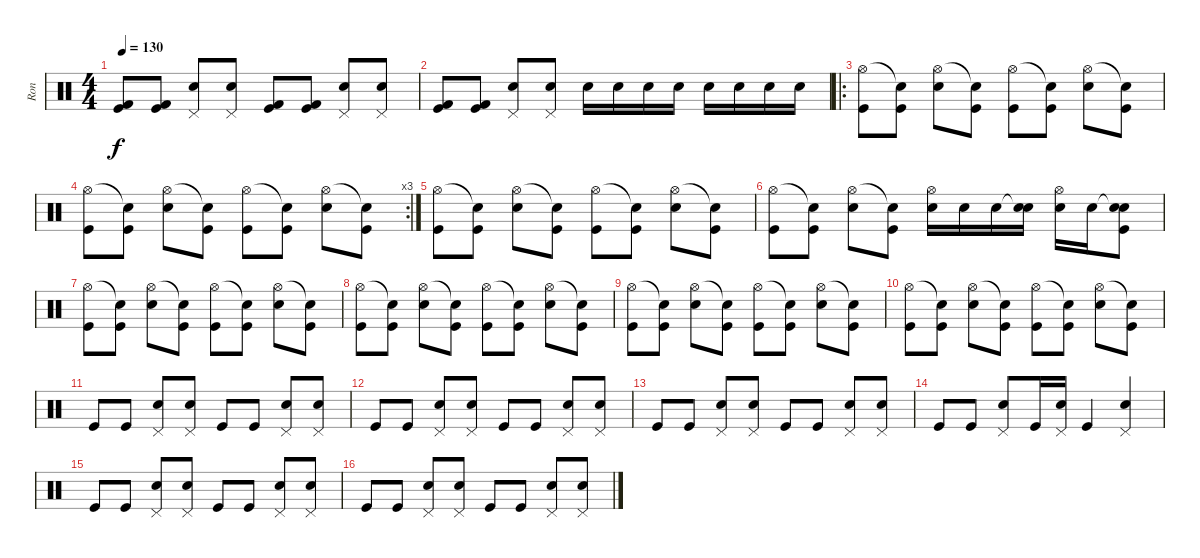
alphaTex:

\track ("Ron" "Ron") {instrument percussion}
\staff {score}
\articulation defaults
\ts (4 4)
\tempo 130
\clef neutral
\ks c
("Kick (hit) 2" "Kick (hit)").8{dy f} ("Kick (hit) 2" "Kick (hit)").8 ("Pedal Hi-Hat (hit)" "Electric Snare (hit)").8 ("Pedal Hi-Hat (hit)" "Electric Snare (hit)").8 ("Kick (hit) 2" "Kick (hit)").8 ("Kick (hit) 2" "Kick (hit)").8 ("Pedal Hi-Hat (hit)" "Electric Snare (hit)").8 ("Pedal Hi-Hat (hit)" "Electric Snare (hit)").8 |
("Kick (hit) 2" "Kick (hit)").8 ("Kick (hit) 2" "Kick (hit)").8 ("Pedal Hi-Hat (hit)" "Electric Snare (hit)").8 ("Pedal Hi-Hat (hit)" "Electric Snare (hit)").8 "Electric Snare (hit)".16 "Electric Snare (hit)".16 "Electric Snare (hit)".16 "Electric Snare (hit)".16 "Electric Snare (hit)".16 "Electric Snare (hit)".16 "Electric Snare (hit)".16 "Electric Snare (hit)".16 |
\ro
("Hi-Hat (open)" "Kick (hit)").8 ("Snare (hit)"{t} "Kick (hit)").8 ("Hi-Hat (open)" "Electric Snare (hit)").8 ("Snare (hit)"{t} "Kick (hit)").8 ("Hi-Hat (open)" "Kick (hit)").8 ("Snare (hit)"{t} "Kick (hit)").8 ("Hi-Hat (open)" "Electric Snare (hit)").8 ("Snare (hit)"{t} "Kick (hit)").8 |
\rc 3
("Hi-Hat (open)" "Kick (hit)").8 ("Snare (hit)"{t} "Kick (hit)").8 ("Hi-Hat (open)" "Electric Snare (hit)").8 ("Snare (hit)"{t} "Kick (hit)").8 ("Hi-Hat (open)" "Kick (hit)").8 ("Snare (hit)"{t} "Kick (hit)").8 ("Hi-Hat (open)" "Electric Snare (hit)").8 ("Snare (hit)"{t} "Kick (hit)").8 |
("Hi-Hat (open)" "Kick (hit)").8 ("Snare (hit)"{t} "Kick (hit)").8 ("Hi-Hat (open)" "Electric Snare (hit)").8 ("Snare (hit)"{t} "Kick (hit)").8 ("Hi-Hat (open)" "Kick (hit)").8 ("Snare (hit)"{t} "Kick (hit)").8 ("Hi-Hat (open)" "Electric Snare (hit)").8 ("Snare (hit)"{t} "Kick (hit)").8 |
("Hi-Hat (open)" "Kick (hit)").8 ("Snare (hit)"{t} "Kick (hit)").8 ("Hi-Hat (open)" "Electric Snare (hit)").8 ("Snare (hit)"{t} "Kick (hit)").8 ("Hi-Hat (open)" "Electric Snare (hit)").16 "Electric Snare (hit)".16 "Electric Snare (hit)".16 ("Snare (hit)"{t} "Electric Snare (hit)").16 ("Hi-Hat (open)" "Electric Snare (hit)").16 "Electric Snare (hit)".16 ("Snare (hit)"{t} "Electric Snare (hit)" "Kick (hit)").8 |
("Hi-Hat (open)" "Kick (hit)").8 ("Snare (hit)"{t} "Kick (hit)").8 ("Hi-Hat (open)" "Electric Snare (hit)").8 ("Snare (hit)"{t} "Kick (hit)").8 ("Hi-Hat (open)" "Kick (hit)").8 ("Snare (hit)"{t} "Kick (hit)").8 ("Hi-Hat (open)" "Electric Snare (hit)").8 ("Snare (hit)"{t} "Kick (hit)").8 |
("Hi-Hat (open)" "Kick (hit)").8 ("Snare (hit)"{t} "Kick (hit)").8 ("Hi-Hat (open)" "Electric Snare (hit)").8 ("Snare (hit)"{t} "Kick (hit)").8 ("Hi-Hat (open)" "Kick (hit)").8 ("Snare (hit)"{t} "Kick (hit)").8 ("Hi-Hat (open)" "Electric Snare (hit)").8 ("Snare (hit)"{t} "Kick (hit)").8 |
("Hi-Hat (open)" "Kick (hit)").8 ("Snare (hit)"{t} "Kick (hit)").8 ("Hi-Hat (open)" "Electric Snare (hit)").8 ("Snare (hit)"{t} "Kick (hit)").8 ("Hi-Hat (open)" "Kick (hit)").8 ("Snare (hit)"{t} "Kick (hit)").8 ("Hi-Hat (open)" "Electric Snare (hit)").8 ("Snare (hit)"{t} "Kick (hit)").8 |
("Hi-Hat (open)" "Kick (hit)").8 ("Snare (hit)"{t} "Kick (hit)").8 ("Hi-Hat (open)" "Electric Snare (hit)").8 ("Snare (hit)"{t} "Kick (hit)").8 ("Hi-Hat (open)" "Kick (hit)").8 ("Snare (hit)"{t} "Kick (hit)").8 ("Hi-Hat (open)" "Electric Snare (hit)").8 ("Snare (hit)"{t} "Kick (hit)").8 |
"Kick (hit)".8 "Kick (hit)".8 ("Pedal Hi-Hat (hit)" "Electric Snare (hit)").8 ("Pedal Hi-Hat (hit)" "Electric Snare (hit)").8 "Kick (hit)".8 "Kick (hit)".8 ("Pedal Hi-Hat (hit)" "Electric Snare (hit)").8 ("Pedal Hi-Hat (hit)" "Electric Snare (hit)").8 |
"Kick (hit)".8 "Kick (hit)".8 ("Pedal Hi-Hat (hit)" "Electric Snare (hit)").8 ("Pedal Hi-Hat (hit)" "Electric Snare (hit)").8 "Kick (hit)".8 "Kick (hit)".8 ("Pedal Hi-Hat (hit)" "Electric Snare (hit)").8 ("Pedal Hi-Hat (hit)" "Electric Snare (hit)").8 |
"Kick (hit)".8 "Kick (hit)".8 ("Pedal Hi-Hat (hit)" "Electric Snare (hit)").8 ("Pedal Hi-Hat (hit)" "Electric Snare (hit)").8 "Kick (hit)".8 "Kick (hit)".8 ("Pedal Hi-Hat (hit)" "Electric Snare (hit)").8 ("Pedal Hi-Hat (hit)" "Electric Snare (hit)").8 |
"Kick (hit)".8 "Kick (hit)".8 ("Pedal Hi-Hat (hit)" "Electric Snare (hit)").8 "Kick (hit)".16 ("Pedal Hi-Hat (hit)" "Electric Snare (hit)").16 "Kick (hit)".4 ("Pedal Hi-Hat (hit)" "Electric Snare (hit)").4 |
"Kick (hit)".8 "Kick (hit)".8 ("Pedal Hi-Hat (hit)" "Electric Snare (hit)").8 ("Pedal Hi-Hat (hit)" "Electric Snare (hit)").8 "Kick (hit)".8 "Kick (hit)".8 ("Pedal Hi-Hat (hit)" "Electric Snare (hit)").8 ("Pedal Hi-Hat (hit)" "Electric Snare (hit)").8 |
"Kick (hit)".8 "Kick (hit)".8 ("Pedal Hi-Hat (hit)" "Electric Snare (hit)").8 ("Pedal Hi-Hat (hit)" "Electric Snare (hit)").8 "Kick (hit)".8 "Kick (hit)".8 ("Pedal Hi-Hat (hit)" "Electric Snare (hit)").8 ("Pedal Hi-Hat (hit)" "Electric Snare (hit)").8
